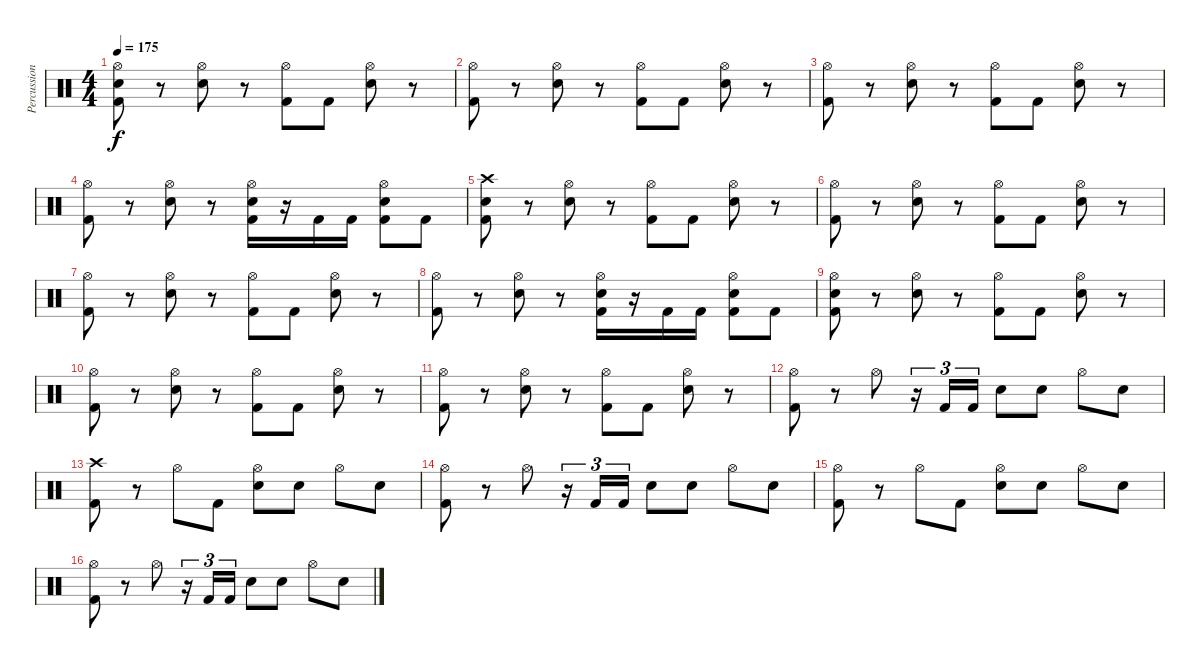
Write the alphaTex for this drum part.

\track ("Percussions" "Percussion") {instrument percussion}
\staff {score}
\articulation defaults
\ts (4 4)
\tempo 175
\clef neutral
\ks c
("Kick (hit) 2" "Electric Snare (hit)" "Hi-Hat (open)").8{dy f} r.8 ("Electric Snare (hit)" "Hi-Hat (open)").8 r.8 ("Kick (hit) 2" "Hi-Hat (open)").8 "Kick (hit) 2".8 ("Electric Snare (hit)" "Hi-Hat (open)").8 r.8 |
("Kick (hit) 2" "Hi-Hat (open)").8 r.8 ("Electric Snare (hit)" "Hi-Hat (open)").8 r.8 ("Kick (hit) 2" "Hi-Hat (open)").8 "Kick (hit) 2".8 ("Electric Snare (hit)" "Hi-Hat (open)").8 r.8 |
("Kick (hit) 2" "Hi-Hat (open)").8 r.8 ("Electric Snare (hit)" "Hi-Hat (open)").8 r.8 ("Kick (hit) 2" "Hi-Hat (open)").8 "Kick (hit) 2".8 ("Electric Snare (hit)" "Hi-Hat (open)").8 r.8 |
("Kick (hit) 2" "Hi-Hat (open)").8 r.8 ("Electric Snare (hit)" "Hi-Hat (open)").8 r.8 ("Kick (hit) 2" "Electric Snare (hit)" "Hi-Hat (open)").16 r.16 "Kick (hit) 2".16 "Kick (hit) 2".16 ("Kick (hit) 2" "Electric Snare (hit)" "Hi-Hat (open)").8 "Kick (hit) 2".8 |
("Kick (hit) 2" "Electric Snare (hit)" "Crash high (hit)").8 r.8 ("Electric Snare (hit)" "Hi-Hat (open)").8 r.8 ("Kick (hit) 2" "Hi-Hat (open)").8 "Kick (hit) 2".8 ("Electric Snare (hit)" "Hi-Hat (open)").8 r.8 |
("Kick (hit) 2" "Hi-Hat (open)").8 r.8 ("Electric Snare (hit)" "Hi-Hat (open)").8 r.8 ("Kick (hit) 2" "Hi-Hat (open)").8 "Kick (hit) 2".8 ("Electric Snare (hit)" "Hi-Hat (open)").8 r.8 |
("Kick (hit) 2" "Hi-Hat (open)").8 r.8 ("Electric Snare (hit)" "Hi-Hat (open)").8 r.8 ("Kick (hit) 2" "Hi-Hat (open)").8 "Kick (hit) 2".8 ("Electric Snare (hit)" "Hi-Hat (open)").8 r.8 |
("Kick (hit) 2" "Hi-Hat (open)").8 r.8 ("Electric Snare (hit)" "Hi-Hat (open)").8 r.8 ("Kick (hit) 2" "Electric Snare (hit)" "Hi-Hat (open)").16 r.16 "Kick (hit) 2".16 "Kick (hit) 2".16 ("Kick (hit) 2" "Electric Snare (hit)" "Hi-Hat (open)").8 "Kick (hit) 2".8 |
("Kick (hit) 2" "Electric Snare (hit)" "Hi-Hat (open)").8 r.8 ("Electric Snare (hit)" "Hi-Hat (open)").8 r.8 ("Kick (hit) 2" "Hi-Hat (open)").8 "Kick (hit) 2".8 ("Electric Snare (hit)" "Hi-Hat (open)").8 r.8 |
("Kick (hit) 2" "Hi-Hat (open)").8 r.8 ("Electric Snare (hit)" "Hi-Hat (open)").8 r.8 ("Kick (hit) 2" "Hi-Hat (open)").8 "Kick (hit) 2".8 ("Electric Snare (hit)" "Hi-Hat (open)").8 r.8 |
("Kick (hit) 2" "Hi-Hat (open)").8 r.8 ("Electric Snare (hit)" "Hi-Hat (open)").8 r.8 ("Kick (hit) 2" "Hi-Hat (open)").8 "Kick (hit) 2".8 ("Electric Snare (hit)" "Hi-Hat (open)").8 r.8 |
("Kick (hit) 2" "Hi-Hat (open)").8 r.8 "Hi-Hat (open)".8 r.16{tu (3 2)} "Kick (hit) 2".16{tu (3 2)} "Kick (hit) 2".16{tu (3 2)} "Electric Snare (hit)".8 "Electric Snare (hit)".8 "Hi-Hat (open)".8 "Electric Snare (hit)".8 |
("Kick (hit) 2" "Crash high (hit)").8 r.8 "Hi-Hat (open)".8 "Kick (hit) 2".8 ("Electric Snare (hit)" "Hi-Hat (open)").8 "Electric Snare (hit)".8 "Hi-Hat (open)".8 "Electric Snare (hit)".8 |
("Kick (hit) 2" "Hi-Hat (open)").8 r.8 "Hi-Hat (open)".8 r.16{tu (3 2)} "Kick (hit) 2".16{tu (3 2)} "Kick (hit) 2".16{tu (3 2)} "Electric Snare (hit)".8 "Electric Snare (hit)".8 "Hi-Hat (open)".8 "Electric Snare (hit)".8 |
("Kick (hit) 2" "Hi-Hat (open)").8 r.8 "Hi-Hat (open)".8 "Kick (hit) 2".8 ("Electric Snare (hit)" "Hi-Hat (open)").8 "Electric Snare (hit)".8 "Hi-Hat (open)".8 "Electric Snare (hit)".8 |
("Kick (hit) 2" "Hi-Hat (open)").8 r.8 "Hi-Hat (open)".8 r.16{tu (3 2)} "Kick (hit) 2".16{tu (3 2)} "Kick (hit) 2".16{tu (3 2)} "Electric Snare (hit)".8 "Electric Snare (hit)".8 "Hi-Hat (open)".8 "Electric Snare (hit)".8
